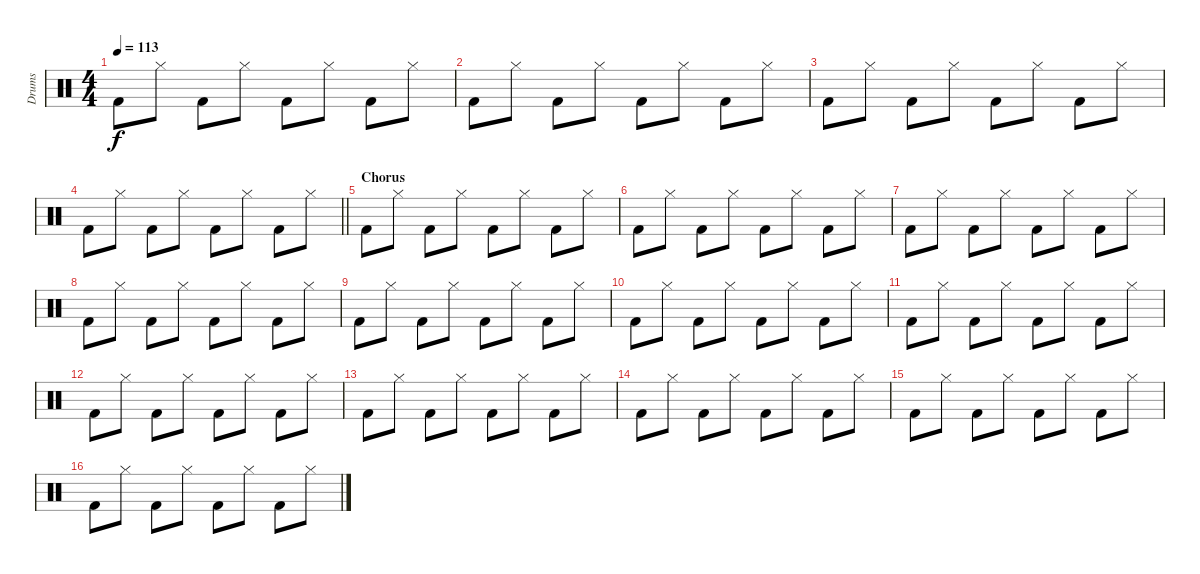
\track ("Drums" "Drums") {instrument percussion}
\staff {score}
\articulation defaults
\ts (4 4)
\tempo 113
\clef neutral
\ks c "Kick (hit) 2".8{dy f} "Hi-Hat (closed)".8 "Kick (hit) 2".8 "Hi-Hat (closed)".8 "Kick (hit) 2".8 "Hi-Hat (closed)".8 "Kick (hit) 2".8 "Hi-Hat (closed)".8
|
"Kick (hit) 2".8 "Hi-Hat (closed)".8 "Kick (hit) 2".8 "Hi-Hat (closed)".8 "Kick (hit) 2".8 "Hi-Hat (closed)".8 "Kick (hit) 2".8 "Hi-Hat (closed)".8 |
"Kick (hit) 2".8 "Hi-Hat (closed)".8 "Kick (hit) 2".8 "Hi-Hat (closed)".8 "Kick (hit) 2".8 "Hi-Hat (closed)".8 "Kick (hit) 2".8 "Hi-Hat (closed)".8 |
\barLineRight lightlight "Kick (hit) 2".8 "Hi-Hat (closed)".8 "Kick (hit) 2".8 "Hi-Hat (closed)".8 "Kick (hit) 2".8 "Hi-Hat (closed)".8 "Kick (hit) 2".8 "Hi-Hat (closed)".8
|
\section ("" "Chorus")
"Kick (hit) 2".8 "Hi-Hat (closed)".8 "Kick (hit) 2".8 "Hi-Hat (closed)".8 "Kick (hit) 2".8 "Hi-Hat (closed)".8 "Kick (hit) 2".8 "Hi-Hat (closed)".8 |
"Kick (hit) 2".8 "Hi-Hat (closed)".8 "Kick (hit) 2".8 "Hi-Hat (closed)".8 "Kick (hit) 2".8 "Hi-Hat (closed)".8 "Kick (hit) 2".8 "Hi-Hat (closed)".8 |
"Kick (hit) 2".8 "Hi-Hat (closed)".8 "Kick (hit) 2".8 "Hi-Hat (closed)".8 "Kick (hit) 2".8 "Hi-Hat (closed)".8 "Kick (hit) 2".8 "Hi-Hat (closed)".8 |
"Kick (hit) 2".8 "Hi-Hat (closed)".8 "Kick (hit) 2".8 "Hi-Hat (closed)".8 "Kick (hit) 2".8 "Hi-Hat (closed)".8 "Kick (hit) 2".8 "Hi-Hat (closed)".8 |
"Kick (hit) 2".8 "Hi-Hat (closed)".8 "Kick (hit) 2".8 "Hi-Hat (closed)".8 "Kick (hit) 2".8 "Hi-Hat (closed)".8 "Kick (hit) 2".8 "Hi-Hat (closed)".8 |
"Kick (hit) 2".8 "Hi-Hat (closed)".8 "Kick (hit) 2".8 "Hi-Hat (closed)".8 "Kick (hit) 2".8 "Hi-Hat (closed)".8 "Kick (hit) 2".8 "Hi-Hat (closed)".8 |
"Kick (hit) 2".8 "Hi-Hat (closed)".8 "Kick (hit) 2".8 "Hi-Hat (closed)".8 "Kick (hit) 2".8 "Hi-Hat (closed)".8 "Kick (hit) 2".8 "Hi-Hat (closed)".8 |
"Kick (hit) 2".8 "Hi-Hat (closed)".8 "Kick (hit) 2".8 "Hi-Hat (closed)".8 "Kick (hit) 2".8 "Hi-Hat (closed)".8 "Kick (hit) 2".8 "Hi-Hat (closed)".8 |
"Kick (hit) 2".8 "Hi-Hat (closed)".8 "Kick (hit) 2".8 "Hi-Hat (closed)".8 "Kick (hit) 2".8 "Hi-Hat (closed)".8 "Kick (hit) 2".8 "Hi-Hat (closed)".8 |
"Kick (hit) 2".8 "Hi-Hat (closed)".8 "Kick (hit) 2".8 "Hi-Hat (closed)".8 "Kick (hit) 2".8 "Hi-Hat (closed)".8 "Kick (hit) 2".8 "Hi-Hat (closed)".8 |
"Kick (hit) 2".8 "Hi-Hat (closed)".8 "Kick (hit) 2".8 "Hi-Hat (closed)".8 "Kick (hit) 2".8 "Hi-Hat (closed)".8 "Kick (hit) 2".8 "Hi-Hat (closed)".8 |
"Kick (hit) 2".8 "Hi-Hat (closed)".8 "Kick (hit) 2".8 "Hi-Hat (closed)".8 "Kick (hit) 2".8 "Hi-Hat (closed)".8 "Kick (hit) 2".8 "Hi-Hat (closed)".8
